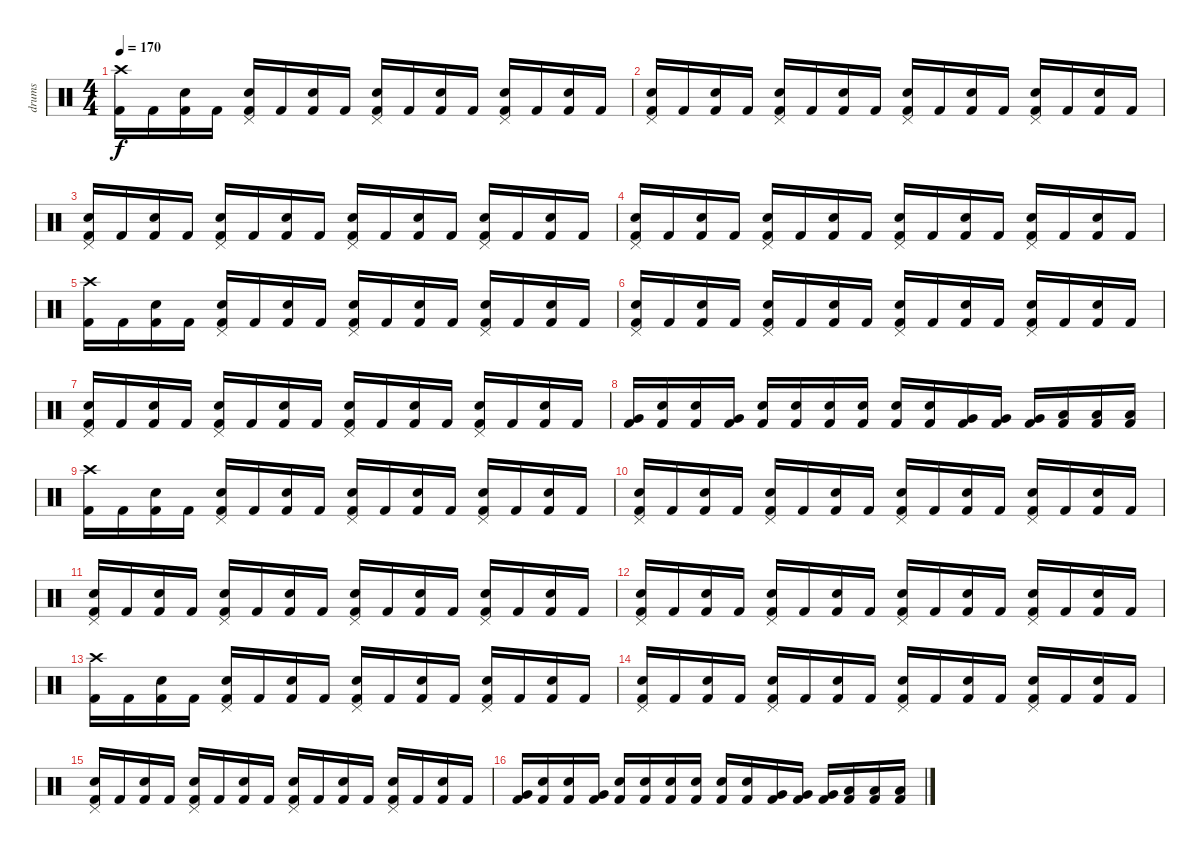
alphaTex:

\track ("drums" "drums") {instrument percussion}
\staff {score}
\articulation defaults
\ts (4 4)
\tempo 170
\clef neutral
\ks c
("Crash high (hit)" "Kick (hit) 2").16{dy f} "Kick (hit) 2".16 ("Electric Snare (hit)" "Kick (hit) 2").16 "Kick (hit) 2".16 ("Pedal Hi-Hat (hit)" "Electric Snare (hit)" "Kick (hit) 2").16 "Kick (hit) 2".16 ("Electric Snare (hit)" "Kick (hit) 2").16 "Kick (hit) 2".16 ("Pedal Hi-Hat (hit)" "Electric Snare (hit)" "Kick (hit) 2").16 "Kick (hit) 2".16 ("Electric Snare (hit)" "Kick (hit) 2").16 "Kick (hit) 2".16 ("Pedal Hi-Hat (hit)" "Electric Snare (hit)" "Kick (hit) 2").16 "Kick (hit) 2".16 ("Electric Snare (hit)" "Kick (hit) 2").16 "Kick (hit) 2".16 |
("Pedal Hi-Hat (hit)" "Electric Snare (hit)" "Kick (hit) 2").16 "Kick (hit) 2".16 ("Electric Snare (hit)" "Kick (hit) 2").16 "Kick (hit) 2".16 ("Pedal Hi-Hat (hit)" "Electric Snare (hit)" "Kick (hit) 2").16 "Kick (hit) 2".16 ("Electric Snare (hit)" "Kick (hit) 2").16 "Kick (hit) 2".16 ("Pedal Hi-Hat (hit)" "Electric Snare (hit)" "Kick (hit) 2").16 "Kick (hit) 2".16 ("Electric Snare (hit)" "Kick (hit) 2").16 "Kick (hit) 2".16 ("Pedal Hi-Hat (hit)" "Electric Snare (hit)" "Kick (hit) 2").16 "Kick (hit) 2".16 ("Electric Snare (hit)" "Kick (hit) 2").16 "Kick (hit) 2".16 |
("Pedal Hi-Hat (hit)" "Electric Snare (hit)" "Kick (hit) 2").16 "Kick (hit) 2".16 ("Electric Snare (hit)" "Kick (hit) 2").16 "Kick (hit) 2".16 ("Pedal Hi-Hat (hit)" "Electric Snare (hit)" "Kick (hit) 2").16 "Kick (hit) 2".16 ("Electric Snare (hit)" "Kick (hit) 2").16 "Kick (hit) 2".16 ("Pedal Hi-Hat (hit)" "Electric Snare (hit)" "Kick (hit) 2").16 "Kick (hit) 2".16 ("Electric Snare (hit)" "Kick (hit) 2").16 "Kick (hit) 2".16 ("Pedal Hi-Hat (hit)" "Electric Snare (hit)" "Kick (hit) 2").16 "Kick (hit) 2".16 ("Electric Snare (hit)" "Kick (hit) 2").16 "Kick (hit) 2".16 |
("Pedal Hi-Hat (hit)" "Electric Snare (hit)" "Kick (hit) 2").16 "Kick (hit) 2".16 ("Electric Snare (hit)" "Kick (hit) 2").16 "Kick (hit) 2".16 ("Pedal Hi-Hat (hit)" "Electric Snare (hit)" "Kick (hit) 2").16 "Kick (hit) 2".16 ("Electric Snare (hit)" "Kick (hit) 2").16 "Kick (hit) 2".16 ("Pedal Hi-Hat (hit)" "Electric Snare (hit)" "Kick (hit) 2").16 "Kick (hit) 2".16 ("Electric Snare (hit)" "Kick (hit) 2").16 "Kick (hit) 2".16 ("Pedal Hi-Hat (hit)" "Electric Snare (hit)" "Kick (hit) 2").16 "Kick (hit) 2".16 ("Electric Snare (hit)" "Kick (hit) 2").16 "Kick (hit) 2".16 |
("Crash high (hit)" "Kick (hit) 2").16 "Kick (hit) 2".16 ("Electric Snare (hit)" "Kick (hit) 2").16 "Kick (hit) 2".16 ("Pedal Hi-Hat (hit)" "Electric Snare (hit)" "Kick (hit) 2").16 "Kick (hit) 2".16 ("Electric Snare (hit)" "Kick (hit) 2").16 "Kick (hit) 2".16 ("Pedal Hi-Hat (hit)" "Electric Snare (hit)" "Kick (hit) 2").16 "Kick (hit) 2".16 ("Electric Snare (hit)" "Kick (hit) 2").16 "Kick (hit) 2".16 ("Pedal Hi-Hat (hit)" "Electric Snare (hit)" "Kick (hit) 2").16 "Kick (hit) 2".16 ("Electric Snare (hit)" "Kick (hit) 2").16 "Kick (hit) 2".16 |
("Pedal Hi-Hat (hit)" "Electric Snare (hit)" "Kick (hit) 2").16 "Kick (hit) 2".16 ("Electric Snare (hit)" "Kick (hit) 2").16 "Kick (hit) 2".16 ("Pedal Hi-Hat (hit)" "Electric Snare (hit)" "Kick (hit) 2").16 "Kick (hit) 2".16 ("Electric Snare (hit)" "Kick (hit) 2").16 "Kick (hit) 2".16 ("Pedal Hi-Hat (hit)" "Electric Snare (hit)" "Kick (hit) 2").16 "Kick (hit) 2".16 ("Electric Snare (hit)" "Kick (hit) 2").16 "Kick (hit) 2".16 ("Pedal Hi-Hat (hit)" "Electric Snare (hit)" "Kick (hit) 2").16 "Kick (hit) 2".16 ("Electric Snare (hit)" "Kick (hit) 2").16 "Kick (hit) 2".16 |
("Pedal Hi-Hat (hit)" "Electric Snare (hit)" "Kick (hit) 2").16 "Kick (hit) 2".16 ("Electric Snare (hit)" "Kick (hit) 2").16 "Kick (hit) 2".16 ("Pedal Hi-Hat (hit)" "Electric Snare (hit)" "Kick (hit) 2").16 "Kick (hit) 2".16 ("Electric Snare (hit)" "Kick (hit) 2").16 "Kick (hit) 2".16 ("Pedal Hi-Hat (hit)" "Electric Snare (hit)" "Kick (hit) 2").16 "Kick (hit) 2".16 ("Electric Snare (hit)" "Kick (hit) 2").16 "Kick (hit) 2".16 ("Pedal Hi-Hat (hit)" "Electric Snare (hit)" "Kick (hit) 2").16 "Kick (hit) 2".16 ("Electric Snare (hit)" "Kick (hit) 2").16 "Kick (hit) 2".16 |
("Very Low Tom (hit)" "Kick (hit) 2").16 ("Electric Snare (hit)" "Kick (hit) 2").16 ("Electric Snare (hit)" "Kick (hit) 2").16 ("Very Low Tom (hit)" "Kick (hit) 2").16 ("Electric Snare (hit)" "Kick (hit) 2").16 ("Electric Snare (hit)" "Kick (hit) 2").16 ("Electric Snare (hit)" "Kick (hit) 2").16 ("Electric Snare (hit)" "Kick (hit) 2").16 ("Electric Snare (hit)" "Kick (hit) 2").16 ("Electric Snare (hit)" "Kick (hit) 2").16 ("Very Low Tom (hit)" "Kick (hit) 2").16 ("Very Low Tom (hit)" "Kick (hit) 2").16 ("Very Low Tom (hit)" "Kick (hit) 2").16 ("Low Floor Tom (hit)" "Kick (hit) 2").16 ("Low Floor Tom (hit)" "Kick (hit) 2").16 ("Low Floor Tom (hit)" "Kick (hit) 2").16 |
("Crash high (hit)" "Kick (hit) 2").16 "Kick (hit) 2".16 ("Electric Snare (hit)" "Kick (hit) 2").16 "Kick (hit) 2".16 ("Pedal Hi-Hat (hit)" "Electric Snare (hit)" "Kick (hit) 2").16 "Kick (hit) 2".16 ("Electric Snare (hit)" "Kick (hit) 2").16 "Kick (hit) 2".16 ("Pedal Hi-Hat (hit)" "Electric Snare (hit)" "Kick (hit) 2").16 "Kick (hit) 2".16 ("Electric Snare (hit)" "Kick (hit) 2").16 "Kick (hit) 2".16 ("Pedal Hi-Hat (hit)" "Electric Snare (hit)" "Kick (hit) 2").16 "Kick (hit) 2".16 ("Electric Snare (hit)" "Kick (hit) 2").16 "Kick (hit) 2".16 |
("Pedal Hi-Hat (hit)" "Electric Snare (hit)" "Kick (hit) 2").16 "Kick (hit) 2".16 ("Electric Snare (hit)" "Kick (hit) 2").16 "Kick (hit) 2".16 ("Pedal Hi-Hat (hit)" "Electric Snare (hit)" "Kick (hit) 2").16 "Kick (hit) 2".16 ("Electric Snare (hit)" "Kick (hit) 2").16 "Kick (hit) 2".16 ("Pedal Hi-Hat (hit)" "Electric Snare (hit)" "Kick (hit) 2").16 "Kick (hit) 2".16 ("Electric Snare (hit)" "Kick (hit) 2").16 "Kick (hit) 2".16 ("Pedal Hi-Hat (hit)" "Electric Snare (hit)" "Kick (hit) 2").16 "Kick (hit) 2".16 ("Electric Snare (hit)" "Kick (hit) 2").16 "Kick (hit) 2".16 |
("Pedal Hi-Hat (hit)" "Electric Snare (hit)" "Kick (hit) 2").16 "Kick (hit) 2".16 ("Electric Snare (hit)" "Kick (hit) 2").16 "Kick (hit) 2".16 ("Pedal Hi-Hat (hit)" "Electric Snare (hit)" "Kick (hit) 2").16 "Kick (hit) 2".16 ("Electric Snare (hit)" "Kick (hit) 2").16 "Kick (hit) 2".16 ("Pedal Hi-Hat (hit)" "Electric Snare (hit)" "Kick (hit) 2").16 "Kick (hit) 2".16 ("Electric Snare (hit)" "Kick (hit) 2").16 "Kick (hit) 2".16 ("Pedal Hi-Hat (hit)" "Electric Snare (hit)" "Kick (hit) 2").16 "Kick (hit) 2".16 ("Electric Snare (hit)" "Kick (hit) 2").16 "Kick (hit) 2".16 |
("Pedal Hi-Hat (hit)" "Electric Snare (hit)" "Kick (hit) 2").16 "Kick (hit) 2".16 ("Electric Snare (hit)" "Kick (hit) 2").16 "Kick (hit) 2".16 ("Pedal Hi-Hat (hit)" "Electric Snare (hit)" "Kick (hit) 2").16 "Kick (hit) 2".16 ("Electric Snare (hit)" "Kick (hit) 2").16 "Kick (hit) 2".16 ("Pedal Hi-Hat (hit)" "Electric Snare (hit)" "Kick (hit) 2").16 "Kick (hit) 2".16 ("Electric Snare (hit)" "Kick (hit) 2").16 "Kick (hit) 2".16 ("Pedal Hi-Hat (hit)" "Electric Snare (hit)" "Kick (hit) 2").16 "Kick (hit) 2".16 ("Electric Snare (hit)" "Kick (hit) 2").16 "Kick (hit) 2".16 |
("Crash high (hit)" "Kick (hit) 2").16 "Kick (hit) 2".16 ("Electric Snare (hit)" "Kick (hit) 2").16 "Kick (hit) 2".16 ("Pedal Hi-Hat (hit)" "Electric Snare (hit)" "Kick (hit) 2").16 "Kick (hit) 2".16 ("Electric Snare (hit)" "Kick (hit) 2").16 "Kick (hit) 2".16 ("Pedal Hi-Hat (hit)" "Electric Snare (hit)" "Kick (hit) 2").16 "Kick (hit) 2".16 ("Electric Snare (hit)" "Kick (hit) 2").16 "Kick (hit) 2".16 ("Pedal Hi-Hat (hit)" "Electric Snare (hit)" "Kick (hit) 2").16 "Kick (hit) 2".16 ("Electric Snare (hit)" "Kick (hit) 2").16 "Kick (hit) 2".16 |
("Pedal Hi-Hat (hit)" "Electric Snare (hit)" "Kick (hit) 2").16 "Kick (hit) 2".16 ("Electric Snare (hit)" "Kick (hit) 2").16 "Kick (hit) 2".16 ("Pedal Hi-Hat (hit)" "Electric Snare (hit)" "Kick (hit) 2").16 "Kick (hit) 2".16 ("Electric Snare (hit)" "Kick (hit) 2").16 "Kick (hit) 2".16 ("Pedal Hi-Hat (hit)" "Electric Snare (hit)" "Kick (hit) 2").16 "Kick (hit) 2".16 ("Electric Snare (hit)" "Kick (hit) 2").16 "Kick (hit) 2".16 ("Pedal Hi-Hat (hit)" "Electric Snare (hit)" "Kick (hit) 2").16 "Kick (hit) 2".16 ("Electric Snare (hit)" "Kick (hit) 2").16 "Kick (hit) 2".16 |
("Pedal Hi-Hat (hit)" "Electric Snare (hit)" "Kick (hit) 2").16 "Kick (hit) 2".16 ("Electric Snare (hit)" "Kick (hit) 2").16 "Kick (hit) 2".16 ("Pedal Hi-Hat (hit)" "Electric Snare (hit)" "Kick (hit) 2").16 "Kick (hit) 2".16 ("Electric Snare (hit)" "Kick (hit) 2").16 "Kick (hit) 2".16 ("Pedal Hi-Hat (hit)" "Electric Snare (hit)" "Kick (hit) 2").16 "Kick (hit) 2".16 ("Electric Snare (hit)" "Kick (hit) 2").16 "Kick (hit) 2".16 ("Pedal Hi-Hat (hit)" "Electric Snare (hit)" "Kick (hit) 2").16 "Kick (hit) 2".16 ("Electric Snare (hit)" "Kick (hit) 2").16 "Kick (hit) 2".16 |
("Very Low Tom (hit)" "Kick (hit) 2").16 ("Electric Snare (hit)" "Kick (hit) 2").16 ("Electric Snare (hit)" "Kick (hit) 2").16 ("Very Low Tom (hit)" "Kick (hit) 2").16 ("Electric Snare (hit)" "Kick (hit) 2").16 ("Electric Snare (hit)" "Kick (hit) 2").16 ("Electric Snare (hit)" "Kick (hit) 2").16 ("Electric Snare (hit)" "Kick (hit) 2").16 ("Electric Snare (hit)" "Kick (hit) 2").16 ("Electric Snare (hit)" "Kick (hit) 2").16 ("Very Low Tom (hit)" "Kick (hit) 2").16 ("Very Low Tom (hit)" "Kick (hit) 2").16 ("Very Low Tom (hit)" "Kick (hit) 2").16 ("Low Floor Tom (hit)" "Kick (hit) 2").16 ("Low Floor Tom (hit)" "Kick (hit) 2").16 ("Low Floor Tom (hit)" "Kick (hit) 2").16
